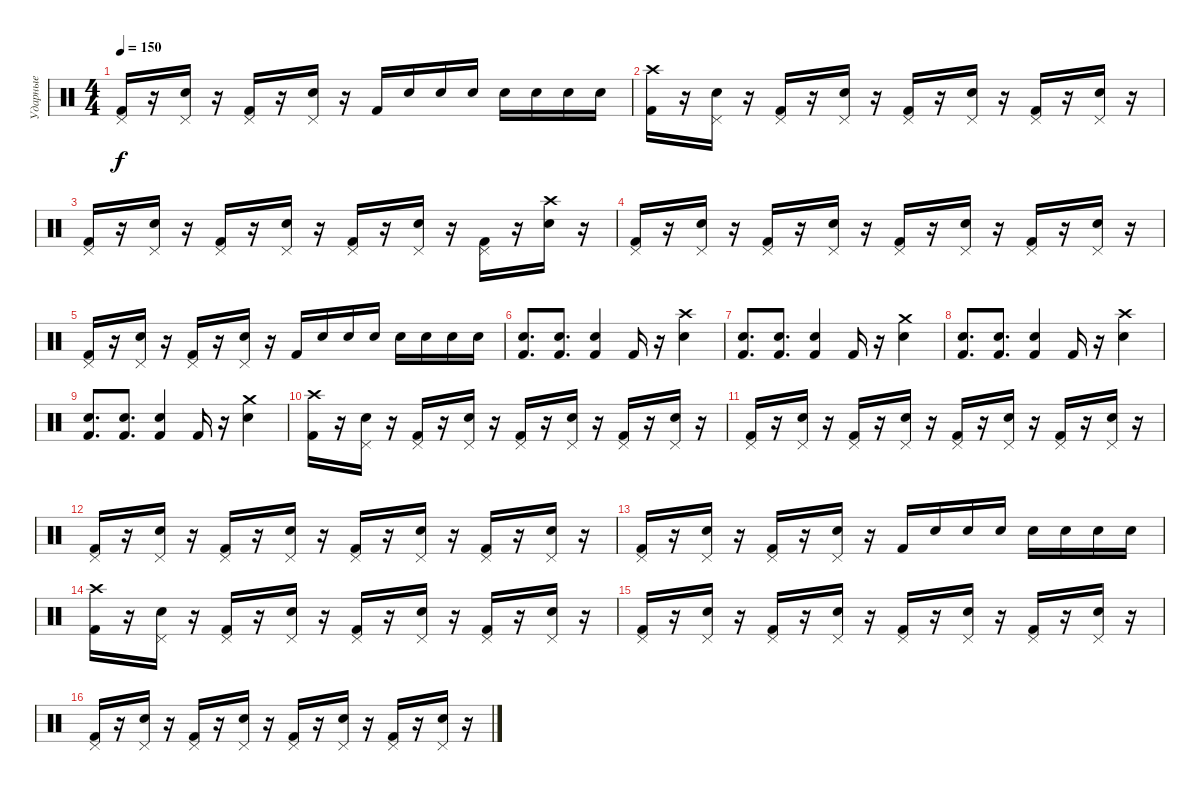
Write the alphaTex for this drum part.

\track ("Ударные" "Ударные") {instrument percussion}
\staff {score}
\articulation defaults
\ts (4 4)
\tempo 150
\clef neutral
\ks c
("Kick (hit) 2" "Pedal Hi-Hat (hit)").16{dy f} r.16 ("Electric Snare (hit)" "Pedal Hi-Hat (hit)").16 r.16 ("Kick (hit) 2" "Pedal Hi-Hat (hit)").16 r.16 ("Electric Snare (hit)" "Pedal Hi-Hat (hit)").16 r.16 "Kick (hit) 2".16 "Electric Snare (hit)".16 "Electric Snare (hit)".16 "Electric Snare (hit)".16 "Electric Snare (hit)".16 "Electric Snare (hit)".16 "Electric Snare (hit)".16 "Electric Snare (hit)".16 |
("Kick (hit) 2" "Crash high (hit)").16 r.16 ("Electric Snare (hit)" "Pedal Hi-Hat (hit)").16 r.16 ("Kick (hit) 2" "Pedal Hi-Hat (hit)").16 r.16 ("Electric Snare (hit)" "Pedal Hi-Hat (hit)").16 r.16 ("Kick (hit) 2" "Pedal Hi-Hat (hit)").16 r.16 ("Electric Snare (hit)" "Pedal Hi-Hat (hit)").16 r.16 ("Kick (hit) 2" "Pedal Hi-Hat (hit)").16 r.16 ("Electric Snare (hit)" "Pedal Hi-Hat (hit)").16 r.16 |
("Kick (hit) 2" "Pedal Hi-Hat (hit)").16 r.16 ("Electric Snare (hit)" "Pedal Hi-Hat (hit)").16 r.16 ("Kick (hit) 2" "Pedal Hi-Hat (hit)").16 r.16 ("Electric Snare (hit)" "Pedal Hi-Hat (hit)").16 r.16 ("Kick (hit) 2" "Pedal Hi-Hat (hit)").16 r.16 ("Electric Snare (hit)" "Pedal Hi-Hat (hit)").16 r.16 ("Kick (hit) 2" "Pedal Hi-Hat (hit)").16 r.16 ("Electric Snare (hit)" "Crash high (hit)").16 r.16 |
("Kick (hit) 2" "Pedal Hi-Hat (hit)").16 r.16 ("Electric Snare (hit)" "Pedal Hi-Hat (hit)").16 r.16 ("Kick (hit) 2" "Pedal Hi-Hat (hit)").16 r.16 ("Electric Snare (hit)" "Pedal Hi-Hat (hit)").16 r.16 ("Kick (hit) 2" "Pedal Hi-Hat (hit)").16 r.16 ("Electric Snare (hit)" "Pedal Hi-Hat (hit)").16 r.16 ("Kick (hit) 2" "Pedal Hi-Hat (hit)").16 r.16 ("Electric Snare (hit)" "Pedal Hi-Hat (hit)").16 r.16 |
("Kick (hit) 2" "Pedal Hi-Hat (hit)").16 r.16 ("Electric Snare (hit)" "Pedal Hi-Hat (hit)").16 r.16 ("Kick (hit) 2" "Pedal Hi-Hat (hit)").16 r.16 ("Electric Snare (hit)" "Pedal Hi-Hat (hit)").16 r.16 "Kick (hit) 2".16 "Electric Snare (hit)".16 "Electric Snare (hit)".16 "Electric Snare (hit)".16 "Electric Snare (hit)".16 "Electric Snare (hit)".16 "Electric Snare (hit)".16 "Electric Snare (hit)".16 |
("Electric Snare (hit)" "Kick (hit) 2").8{d} ("Electric Snare (hit)" "Kick (hit) 2").8{d} ("Electric Snare (hit)" "Kick (hit) 2").4 "Kick (hit) 2".16 r.16 ("Electric Snare (hit)" "Crash high (hit)").4 |
("Electric Snare (hit)" "Kick (hit) 2").8{d} ("Electric Snare (hit)" "Kick (hit) 2").8{d} ("Electric Snare (hit)" "Kick (hit) 2").4 "Kick (hit) 2".16 r.16 ("Electric Snare (hit)" "Crash medium (hit)").4 |
("Electric Snare (hit)" "Kick (hit) 2").8{d} ("Electric Snare (hit)" "Kick (hit) 2").8{d} ("Electric Snare (hit)" "Kick (hit) 2").4 "Kick (hit) 2".16 r.16 ("Electric Snare (hit)" "Crash high (hit)").4 |
("Electric Snare (hit)" "Kick (hit) 2").8{d} ("Electric Snare (hit)" "Kick (hit) 2").8{d} ("Electric Snare (hit)" "Kick (hit) 2").4 "Kick (hit) 2".16 r.16 ("Electric Snare (hit)" "Crash medium (hit)").4 |
("Kick (hit) 2" "Crash high (hit)").16 r.16 ("Electric Snare (hit)" "Pedal Hi-Hat (hit)").16 r.16 ("Kick (hit) 2" "Pedal Hi-Hat (hit)").16 r.16 ("Electric Snare (hit)" "Pedal Hi-Hat (hit)").16 r.16 ("Kick (hit) 2" "Pedal Hi-Hat (hit)").16 r.16 ("Electric Snare (hit)" "Pedal Hi-Hat (hit)").16 r.16 ("Kick (hit) 2" "Pedal Hi-Hat (hit)").16 r.16 ("Electric Snare (hit)" "Pedal Hi-Hat (hit)").16 r.16 |
("Kick (hit) 2" "Pedal Hi-Hat (hit)").16 r.16 ("Electric Snare (hit)" "Pedal Hi-Hat (hit)").16 r.16 ("Kick (hit) 2" "Pedal Hi-Hat (hit)").16 r.16 ("Electric Snare (hit)" "Pedal Hi-Hat (hit)").16 r.16 ("Kick (hit) 2" "Pedal Hi-Hat (hit)").16 r.16 ("Electric Snare (hit)" "Pedal Hi-Hat (hit)").16 r.16 ("Kick (hit) 2" "Pedal Hi-Hat (hit)").16 r.16 ("Electric Snare (hit)" "Pedal Hi-Hat (hit)").16 r.16 |
("Kick (hit) 2" "Pedal Hi-Hat (hit)").16 r.16 ("Electric Snare (hit)" "Pedal Hi-Hat (hit)").16 r.16 ("Kick (hit) 2" "Pedal Hi-Hat (hit)").16 r.16 ("Electric Snare (hit)" "Pedal Hi-Hat (hit)").16 r.16 ("Kick (hit) 2" "Pedal Hi-Hat (hit)").16 r.16 ("Electric Snare (hit)" "Pedal Hi-Hat (hit)").16 r.16 ("Kick (hit) 2" "Pedal Hi-Hat (hit)").16 r.16 ("Electric Snare (hit)" "Pedal Hi-Hat (hit)").16 r.16 |
("Kick (hit) 2" "Pedal Hi-Hat (hit)").16 r.16 ("Electric Snare (hit)" "Pedal Hi-Hat (hit)").16 r.16 ("Kick (hit) 2" "Pedal Hi-Hat (hit)").16 r.16 ("Electric Snare (hit)" "Pedal Hi-Hat (hit)").16 r.16 "Kick (hit) 2".16 "Electric Snare (hit)".16 "Electric Snare (hit)".16 "Electric Snare (hit)".16 "Electric Snare (hit)".16 "Electric Snare (hit)".16 "Electric Snare (hit)".16 "Electric Snare (hit)".16 |
("Kick (hit) 2" "Crash high (hit)").16 r.16 ("Electric Snare (hit)" "Pedal Hi-Hat (hit)").16 r.16 ("Kick (hit) 2" "Pedal Hi-Hat (hit)").16 r.16 ("Electric Snare (hit)" "Pedal Hi-Hat (hit)").16 r.16 ("Kick (hit) 2" "Pedal Hi-Hat (hit)").16 r.16 ("Electric Snare (hit)" "Pedal Hi-Hat (hit)").16 r.16 ("Kick (hit) 2" "Pedal Hi-Hat (hit)").16 r.16 ("Electric Snare (hit)" "Pedal Hi-Hat (hit)").16 r.16 |
("Kick (hit) 2" "Pedal Hi-Hat (hit)").16 r.16 ("Electric Snare (hit)" "Pedal Hi-Hat (hit)").16 r.16 ("Kick (hit) 2" "Pedal Hi-Hat (hit)").16 r.16 ("Electric Snare (hit)" "Pedal Hi-Hat (hit)").16 r.16 ("Kick (hit) 2" "Pedal Hi-Hat (hit)").16 r.16 ("Electric Snare (hit)" "Pedal Hi-Hat (hit)").16 r.16 ("Kick (hit) 2" "Pedal Hi-Hat (hit)").16 r.16 ("Electric Snare (hit)" "Pedal Hi-Hat (hit)").16 r.16 |
("Kick (hit) 2" "Pedal Hi-Hat (hit)").16 r.16 ("Electric Snare (hit)" "Pedal Hi-Hat (hit)").16 r.16 ("Kick (hit) 2" "Pedal Hi-Hat (hit)").16 r.16 ("Electric Snare (hit)" "Pedal Hi-Hat (hit)").16 r.16 ("Kick (hit) 2" "Pedal Hi-Hat (hit)").16 r.16 ("Electric Snare (hit)" "Pedal Hi-Hat (hit)").16 r.16 ("Kick (hit) 2" "Pedal Hi-Hat (hit)").16 r.16 ("Electric Snare (hit)" "Pedal Hi-Hat (hit)").16 r.16
